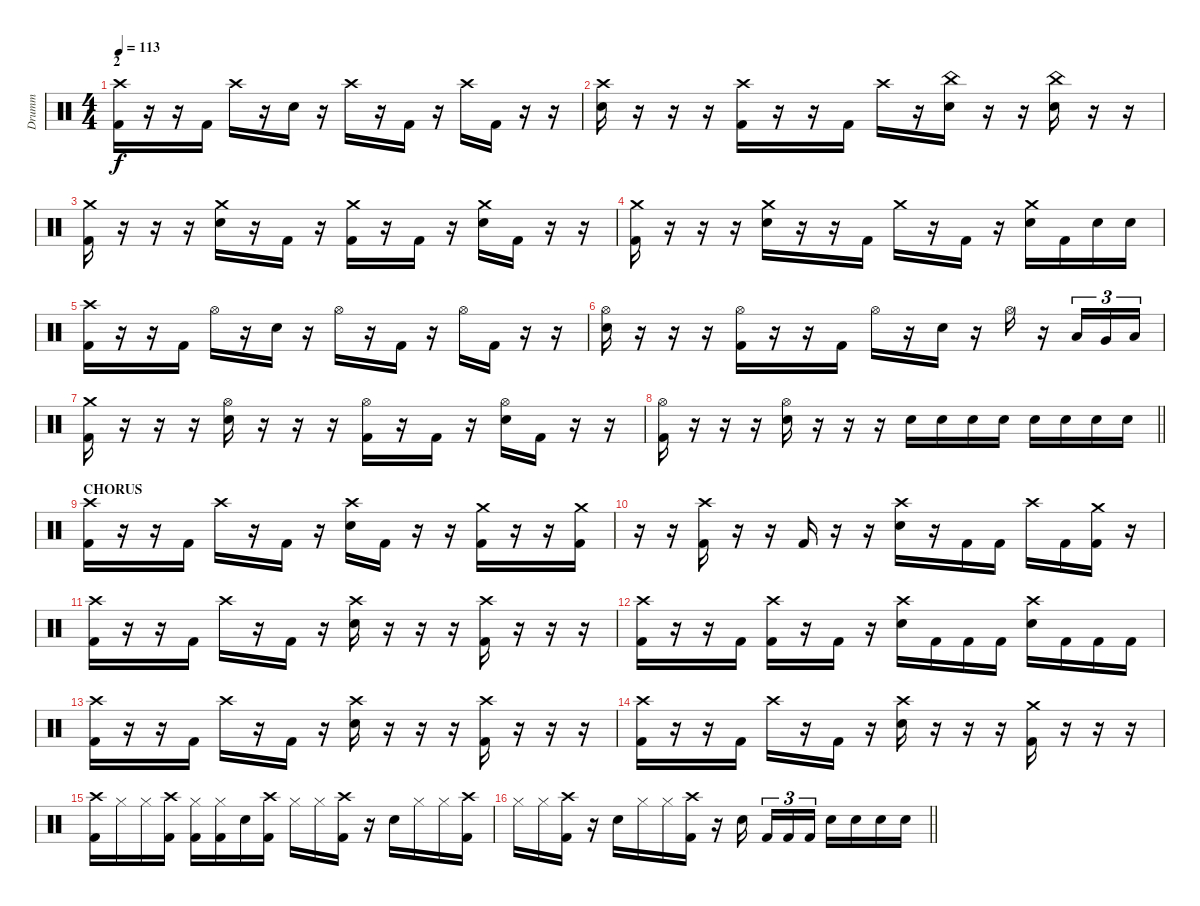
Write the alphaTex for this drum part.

\track ("Drumm" "Drumm") {instrument percussion}
\staff {score}
\articulation defaults
\ts (4 4)
\section ("" "2")
\tempo 113
\clef neutral
\ks c
("Crash high (hit)" "Kick (hit) 2").16{dy f} r.16 r.16 "Kick (hit) 2".16 "Crash high (hit)".16 r.16 "Electric Snare (hit)".16 r.16 "Crash high (hit)".16 r.16 "Kick (hit) 2".16 r.16 "Crash high (hit)".16 "Kick (hit) 2".16 r.16 r.16 |
("Crash high (hit)" "Electric Snare (hit)").16 r.16 r.16 r.16 ("Crash high (hit)" "Kick (hit) 2").16 r.16 r.16 "Kick (hit) 2".16 "Crash high (hit)".16 r.16 ("China (hit)" "Electric Snare (hit)").16 r.16 r.16 ("China (hit)" "Electric Snare (hit)").16 r.16 r.16 |
("Crash medium (hit)" "Kick (hit) 2").16 r.16 r.16 r.16 ("Crash medium (hit)" "Electric Snare (hit)").16 r.16 "Kick (hit) 2".16 r.16 ("Crash medium (hit)" "Kick (hit) 2").16 r.16 "Kick (hit) 2".16 r.16 ("Crash medium (hit)" "Electric Snare (hit)").16 "Kick (hit) 2".16 r.16 r.16 |
("Crash medium (hit)" "Kick (hit) 2").16 r.16 r.16 r.16 ("Crash medium (hit)" "Electric Snare (hit)").16 r.16 r.16 "Kick (hit) 2".16 "Crash medium (hit)".16 r.16 "Kick (hit) 2".16 r.16 ("Crash medium (hit)" "Electric Snare (hit)").16 "Kick (hit) 2".16 "Electric Snare (hit)".16 "Electric Snare (hit)".16 |
("Crash high (hit)" "Kick (hit) 2").16 r.16 r.16 "Kick (hit) 2".16 "Hi-Hat (open)".16 r.16 "Electric Snare (hit)".16 r.16 "Hi-Hat (open)".16 r.16 "Kick (hit) 2".16 r.16 "Hi-Hat (open)".16 "Kick (hit) 2".16 r.16 r.16 |
("Hi-Hat (open)" "Electric Snare (hit)").16 r.16 r.16 r.16 ("Hi-Hat (open)" "Kick (hit) 2").16 r.16 r.16 "Kick (hit) 2".16 "Hi-Hat (open)".16 r.16 "Electric Snare (hit)".16 r.16 "Hi-Hat (open)".16 r.16 "Low Tom (hit)".16{tu (3 2)} "Very Low Tom (hit)".16{tu (3 2)} "Low Floor Tom (hit)".16{tu (3 2)} |
("Crash medium (hit)" "Kick (hit) 2").16 r.16 r.16 r.16 ("Hi-Hat (open)" "Electric Snare (hit)").16 r.16 r.16 r.16 ("Hi-Hat (open)" "Kick (hit) 2").16 r.16 "Kick (hit) 2".16 r.16 ("Hi-Hat (open)" "Electric Snare (hit)").16 "Kick (hit) 2".16 r.16 r.16 |
\barLineRight lightlight
("Hi-Hat (open)" "Kick (hit) 2").16 r.16 r.16 r.16 ("Hi-Hat (open)" "Electric Snare (hit)").16 r.16 r.16 r.16 "Electric Snare (hit)".16 "Electric Snare (hit)".16 "Electric Snare (hit)".16 "Electric Snare (hit)".16 "Electric Snare (hit)".16 "Electric Snare (hit)".16 "Electric Snare (hit)".16 "Electric Snare (hit)".16 |
\section ("" "CHORUS")
("Crash high (hit)" "Kick (hit) 2").16 r.16 r.16 "Kick (hit) 2".16 "Crash high (hit)".16 r.16 "Kick (hit) 2".16 r.16 ("Crash high (hit)" "Electric Snare (hit)").16 "Kick (hit) 2".16 r.16 r.16 ("Crash medium (hit)" "Kick (hit) 2").16 r.16 r.16 ("Crash medium (hit)" "Kick (hit) 2").16 |
r.16 r.16 ("Crash high (hit)" "Kick (hit) 2").16 r.16 r.16 "Kick (hit) 2".16 r.16 r.16 ("Crash high (hit)" "Electric Snare (hit)").16 r.16 "Kick (hit) 2".16 "Kick (hit) 2".16 "Crash high (hit)".16 "Kick (hit) 2".16 ("Crash medium (hit)" "Kick (hit) 2").16 r.16 |
("Crash high (hit)" "Kick (hit) 2").16 r.16 r.16 "Kick (hit) 2".16 "Crash high (hit)".16 r.16 "Kick (hit) 2".16 r.16 ("Crash high (hit)" "Electric Snare (hit)").16 r.16 r.16 r.16 ("Crash high (hit)" "Kick (hit) 2").16 r.16 r.16 r.16 |
("Crash high (hit)" "Kick (hit) 2").16 r.16 r.16 "Kick (hit) 2".16 ("Crash high (hit)" "Kick (hit) 2").16 r.16 "Kick (hit) 2".16 r.16 ("Crash high (hit)" "Electric Snare (hit)").16 "Kick (hit) 2".16 "Kick (hit) 2".16 "Kick (hit) 2".16 ("Crash high (hit)" "Electric Snare (hit)").16 "Kick (hit) 2".16 "Kick (hit) 2".16 "Kick (hit) 2".16 |
("Crash high (hit)" "Kick (hit) 2").16 r.16 r.16 "Kick (hit) 2".16 "Crash high (hit)".16 r.16 "Kick (hit) 2".16 r.16 ("Crash high (hit)" "Electric Snare (hit)").16 r.16 r.16 r.16 ("Crash high (hit)" "Kick (hit) 2").16 r.16 r.16 r.16 |
("Crash high (hit)" "Kick (hit) 2").16 r.16 r.16 "Kick (hit) 2".16 "Crash high (hit)".16 r.16 "Kick (hit) 2".16 r.16 ("Crash high (hit)" "Electric Snare (hit)").16 r.16 r.16 r.16 ("Crash medium (hit)" "Kick (hit) 2").16 r.16 r.16 r.16 |
("Crash high (hit)" "Kick (hit) 2").16 "Hi-Hat (closed)".16 "Hi-Hat (closed)".16 ("Crash high (hit)" "Kick (hit) 2").16 ("Hi-Hat (closed)" "Kick (hit) 2").16 ("Hi-Hat (closed)" "Kick (hit) 2").16 "Electric Snare (hit)".16 ("Crash high (hit)" "Kick (hit) 2").16 "Hi-Hat (closed)".16 "Hi-Hat (closed)".16 ("Crash high (hit)" "Kick (hit) 2").16 r.16 "Electric Snare (hit)".16 "Hi-Hat (closed)".16 "Hi-Hat (closed)".16 ("Crash high (hit)" "Kick (hit) 2").16 |
\barLineRight lightlight "Hi-Hat (closed)".16 "Hi-Hat (closed)".16
("Crash high (hit)" "Kick (hit) 2").16 r.16 "Electric Snare (hit)".16 "Hi-Hat (closed)".16 "Hi-Hat (closed)".16 ("Crash high (hit)" "Kick (hit) 2").16 r.16 "Electric Snare (hit)".16{beam splitsecondary} "Kick (hit) 2".16{tu (3 2)} "Kick (hit) 2".16{tu (3 2)} "Kick (hit) 2".16{tu (3 2)} "Electric Snare (hit)".16 "Electric Snare (hit)".16 "Electric Snare (hit)".16 "Electric Snare (hit)".16
